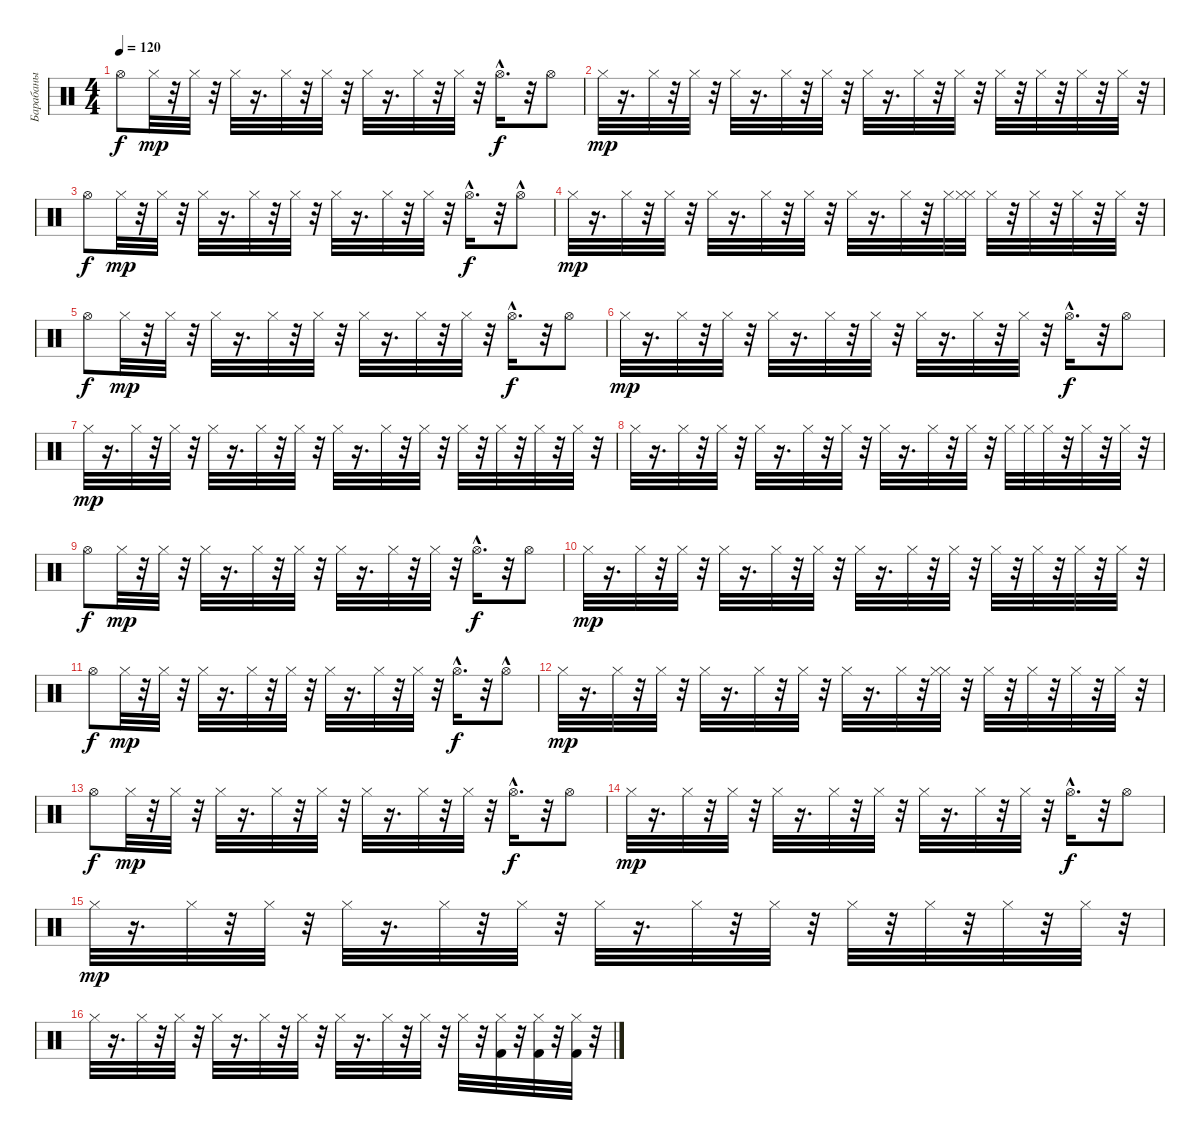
\track ("Барабаны" "Барабаны") {instrument percussion}
\staff {score}
\articulation defaults
\ts (4 4)
\tempo 120
\clef neutral
\ks c "Hi-Hat (open)".8{dy f} "Hi-Hat (closed)".32{dy mp}
r.32 "Hi-Hat (closed)".32 r.32 "Hi-Hat (closed)".32 r.16{d} "Hi-Hat (closed)".32 r.32 "Hi-Hat (closed)".32 r.32 "Hi-Hat (closed)".32 r.16{d} "Hi-Hat (closed)".32 r.32 "Hi-Hat (closed)".32 r.32 "Hi-Hat (open)"{hac}.16{d dy f} r.32 "Hi-Hat (open)".8 |
"Hi-Hat (closed)".32{dy mp} r.16{d} "Hi-Hat (closed)".32 r.32 "Hi-Hat (closed)".32 r.32 "Hi-Hat (closed)".32 r.16{d} "Hi-Hat (closed)".32 r.32 "Hi-Hat (closed)".32 r.32 "Hi-Hat (closed)".32 r.16{d} "Hi-Hat (closed)".32 r.32 "Hi-Hat (closed)".32 r.32 "Hi-Hat (closed)".32 r.32 "Hi-Hat (closed)".32 r.32 "Hi-Hat (closed)".32 r.32 "Hi-Hat (closed)".32 r.32 |
"Hi-Hat (open)".8{dy f} "Hi-Hat (closed)".32{dy mp} r.32 "Hi-Hat (closed)".32 r.32 "Hi-Hat (closed)".32 r.16{d} "Hi-Hat (closed)".32 r.32 "Hi-Hat (closed)".32 r.32 "Hi-Hat (closed)".32 r.16{d} "Hi-Hat (closed)".32 r.32 "Hi-Hat (closed)".32 r.32 "Hi-Hat (open)"{hac}.16{d dy f} r.32 "Hi-Hat (open)"{hac}.8 |
"Hi-Hat (closed)".32{dy mp} r.16{d} "Hi-Hat (closed)".32 r.32 "Hi-Hat (closed)".32 r.32 "Hi-Hat (closed)".32 r.16{d} "Hi-Hat (closed)".32 r.32 "Hi-Hat (closed)".32 r.32 "Hi-Hat (closed)".32 r.16{d} "Hi-Hat (closed)".32 r.32 "Hi-Hat (closed)".32 ("Hi-Hat (closed)" "Hi-Hat (closed)").32 "Hi-Hat (closed)".32 r.32 "Hi-Hat (closed)".32 r.32 "Hi-Hat (closed)".32 r.32 "Hi-Hat (closed)".32 r.32 |
"Hi-Hat (open)".8{dy f} "Hi-Hat (closed)".32{dy mp} r.32 "Hi-Hat (closed)".32 r.32 "Hi-Hat (closed)".32 r.16{d} "Hi-Hat (closed)".32 r.32 "Hi-Hat (closed)".32 r.32 "Hi-Hat (closed)".32 r.16{d} "Hi-Hat (closed)".32 r.32 "Hi-Hat (closed)".32 r.32 "Hi-Hat (open)"{hac}.16{d dy f} r.32 "Hi-Hat (open)".8 |
"Hi-Hat (closed)".32{dy mp} r.16{d} "Hi-Hat (closed)".32 r.32 "Hi-Hat (closed)".32 r.32 "Hi-Hat (closed)".32 r.16{d} "Hi-Hat (closed)".32 r.32 "Hi-Hat (closed)".32 r.32 "Hi-Hat (closed)".32 r.16{d} "Hi-Hat (closed)".32 r.32 "Hi-Hat (closed)".32 r.32 "Hi-Hat (open)"{hac}.16{d dy f} r.32 "Hi-Hat (open)".8 |
"Hi-Hat (closed)".32{dy mp} r.16{d} "Hi-Hat (closed)".32 r.32 "Hi-Hat (closed)".32 r.32 "Hi-Hat (closed)".32 r.16{d} "Hi-Hat (closed)".32 r.32 "Hi-Hat (closed)".32 r.32 "Hi-Hat (closed)".32 r.16{d} "Hi-Hat (closed)".32 r.32 "Hi-Hat (closed)".32 r.32 "Hi-Hat (closed)".32 r.32 "Hi-Hat (closed)".32 r.32 "Hi-Hat (closed)".32 r.32 "Hi-Hat (closed)".32 r.32 |
"Hi-Hat (closed)".32 r.16{d} "Hi-Hat (closed)".32 r.32 "Hi-Hat (closed)".32 r.32 "Hi-Hat (closed)".32 r.16{d} "Hi-Hat (closed)".32 r.32 "Hi-Hat (closed)".32 r.32 "Hi-Hat (closed)".32 r.16{d} "Hi-Hat (closed)".32 r.32 "Hi-Hat (closed)".32 r.32 "Hi-Hat (closed)".32 "Hi-Hat (closed)".32 "Hi-Hat (closed)".32 r.32 "Hi-Hat (closed)".32 r.32 "Hi-Hat (closed)".32 r.32 |
"Hi-Hat (open)".8{dy f} "Hi-Hat (closed)".32{dy mp} r.32 "Hi-Hat (closed)".32 r.32 "Hi-Hat (closed)".32 r.16{d} "Hi-Hat (closed)".32 r.32 "Hi-Hat (closed)".32 r.32 "Hi-Hat (closed)".32 r.16{d} "Hi-Hat (closed)".32 r.32 "Hi-Hat (closed)".32 r.32 "Hi-Hat (open)"{hac}.16{d dy f} r.32 "Hi-Hat (open)".8 |
"Hi-Hat (closed)".32{dy mp} r.16{d} "Hi-Hat (closed)".32 r.32 "Hi-Hat (closed)".32 r.32 "Hi-Hat (closed)".32 r.16{d} "Hi-Hat (closed)".32 r.32 "Hi-Hat (closed)".32 r.32 "Hi-Hat (closed)".32 r.16{d} "Hi-Hat (closed)".32 r.32 "Hi-Hat (closed)".32 r.32 "Hi-Hat (closed)".32 r.32 "Hi-Hat (closed)".32 r.32 "Hi-Hat (closed)".32 r.32 "Hi-Hat (closed)".32 r.32 |
"Hi-Hat (open)".8{dy f} "Hi-Hat (closed)".32{dy mp} r.32 "Hi-Hat (closed)".32 r.32 "Hi-Hat (closed)".32 r.16{d} "Hi-Hat (closed)".32 r.32 "Hi-Hat (closed)".32 r.32 "Hi-Hat (closed)".32 r.16{d} "Hi-Hat (closed)".32 r.32 "Hi-Hat (closed)".32 r.32 "Hi-Hat (open)"{hac}.16{d dy f} r.32 "Hi-Hat (open)"{hac}.8 |
"Hi-Hat (closed)".32{dy mp} r.16{d} "Hi-Hat (closed)".32 r.32 "Hi-Hat (closed)".32 r.32 "Hi-Hat (closed)".32 r.16{d} "Hi-Hat (closed)".32 r.32 "Hi-Hat (closed)".32 r.32 "Hi-Hat (closed)".32 r.16{d} "Hi-Hat (closed)".32 r.32 ("Hi-Hat (closed)" "Hi-Hat (closed)").32 r.32 "Hi-Hat (closed)".32 r.32 "Hi-Hat (closed)".32 r.32 "Hi-Hat (closed)".32 r.32 "Hi-Hat (closed)".32 r.32 |
"Hi-Hat (open)".8{dy f} "Hi-Hat (closed)".32{dy mp} r.32 "Hi-Hat (closed)".32 r.32 "Hi-Hat (closed)".32 r.16{d} "Hi-Hat (closed)".32 r.32 "Hi-Hat (closed)".32 r.32 "Hi-Hat (closed)".32 r.16{d} "Hi-Hat (closed)".32 r.32 "Hi-Hat (closed)".32 r.32 "Hi-Hat (open)"{hac}.16{d dy f} r.32 "Hi-Hat (open)".8 |
"Hi-Hat (closed)".32{dy mp} r.16{d} "Hi-Hat (closed)".32 r.32 "Hi-Hat (closed)".32 r.32 "Hi-Hat (closed)".32 r.16{d} "Hi-Hat (closed)".32 r.32 "Hi-Hat (closed)".32 r.32 "Hi-Hat (closed)".32 r.16{d} "Hi-Hat (closed)".32 r.32 "Hi-Hat (closed)".32 r.32 "Hi-Hat (open)"{hac}.16{d dy f} r.32 "Hi-Hat (open)".8 |
"Hi-Hat (closed)".32{dy mp} r.16{d} "Hi-Hat (closed)".32 r.32 "Hi-Hat (closed)".32 r.32 "Hi-Hat (closed)".32 r.16{d} "Hi-Hat (closed)".32 r.32 "Hi-Hat (closed)".32 r.32 "Hi-Hat (closed)".32 r.16{d} "Hi-Hat (closed)".32 r.32 "Hi-Hat (closed)".32 r.32 "Hi-Hat (closed)".32 r.32 "Hi-Hat (closed)".32 r.32 "Hi-Hat (closed)".32 r.32 "Hi-Hat (closed)".32 r.32 |
"Hi-Hat (closed)".32 r.16{d} "Hi-Hat (closed)".32 r.32 "Hi-Hat (closed)".32 r.32 "Hi-Hat (closed)".32 r.16{d} "Hi-Hat (closed)".32 r.32 "Hi-Hat (closed)".32 r.32 "Hi-Hat (closed)".32 r.16{d} "Hi-Hat (closed)".32 r.32 "Hi-Hat (closed)".32 r.32 "Hi-Hat (closed)".32 r.32 ("Kick (hit) 2" "Hi-Hat (closed)").32 r.32 ("Hi-Hat (closed)" "Kick (hit) 2").32 r.32 ("Hi-Hat (closed)" "Kick (hit) 2").32 r.32
